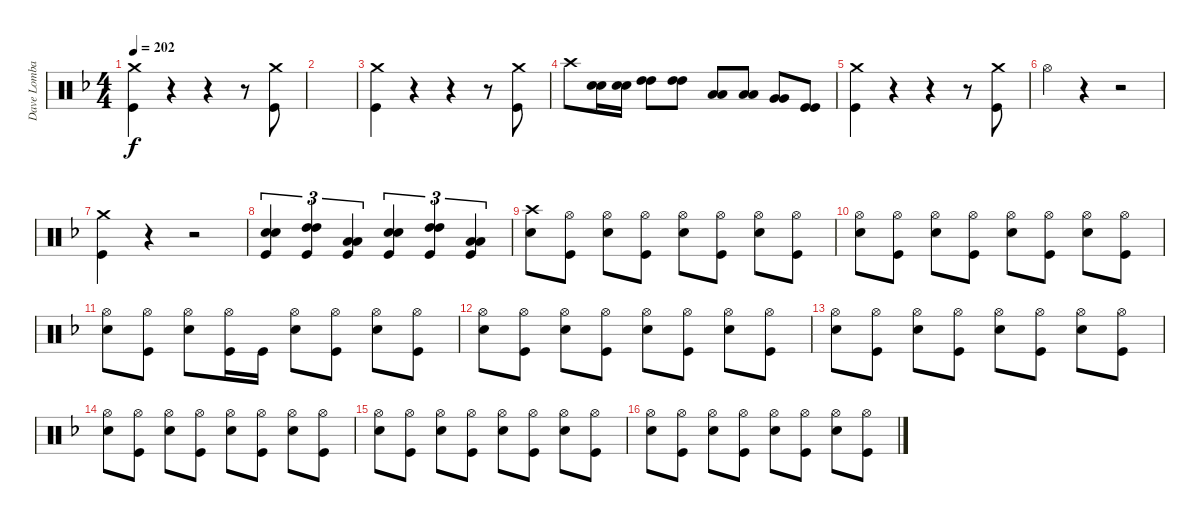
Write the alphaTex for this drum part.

\track ("Dave Lombardo - Drums" "Dave Lomba") {instrument percussion}
\staff {score}
\articulation defaults
\ts (4 4)
\tempo 202
\clef neutral
\ks f
("Crash medium (hit)" "Kick (hit)").4{dy f} r.4 r.4 r.8 ("Crash medium (hit)" "Kick (hit)").8 |
|
("Crash medium (hit)" "Kick (hit)").4 r.4 r.4 r.8 ("Crash medium (hit)" "Kick (hit)").8 |
"Crash high (hit)".8 ("Snare (hit) 2" "Snare (hit) 2").16 ("Snare (hit) 2" "Snare (hit) 2").16 ("High Tom (hit)" "High Tom (hit)").8 ("High Tom (hit)" "High Tom (hit)").8 ("Low Tom (hit)" "Low Tom (hit)").8 ("Low Tom (hit)" "Low Tom (hit)").8 ("Very Low Tom (hit)" "Very Low Tom (hit)").8 ("Kick (hit)" "Kick (hit)").8 |
("Crash medium (hit)" "Kick (hit)").4 r.4 r.4 r.8 ("Crash medium (hit)" "Kick (hit)").8 |
"Hi-Hat (open)".4 r.4 r.2 |
("Crash medium (hit)" "Kick (hit)").4 r.4 r.2 |
("Snare (hit) 2" "Snare (hit) 2" "Kick (hit)").4{tu (3 2)} ("High Tom (hit)" "High Tom (hit)" "Kick (hit)").4{tu (3 2)} ("Low Tom (hit)" "Low Tom (hit)" "Kick (hit)").4{tu (3 2)} ("Snare (hit) 2" "Snare (hit) 2" "Kick (hit)").4{tu (3 2)} ("High Tom (hit)" "High Tom (hit)" "Kick (hit)").4{tu (3 2)} ("Low Tom (hit)" "Low Tom (hit)" "Kick (hit)").4{tu (3 2)} |
("Crash high (hit)" "Snare (hit) 2").8 ("Hi-Hat (open)" "Kick (hit)").8 ("Hi-Hat (open)" "Snare (hit) 2").8 ("Hi-Hat (open)" "Kick (hit)").8 ("Hi-Hat (open)" "Snare (hit) 2").8 ("Hi-Hat (open)" "Kick (hit)").8 ("Hi-Hat (open)" "Snare (hit) 2").8 ("Hi-Hat (open)" "Kick (hit)").8 |
("Hi-Hat (open)" "Snare (hit) 2").8 ("Hi-Hat (open)" "Kick (hit)").8 ("Hi-Hat (open)" "Snare (hit) 2").8 ("Hi-Hat (open)" "Kick (hit)").8 ("Hi-Hat (open)" "Snare (hit) 2").8 ("Hi-Hat (open)" "Kick (hit)").8 ("Hi-Hat (open)" "Snare (hit) 2").8 ("Hi-Hat (open)" "Kick (hit)").8 |
("Hi-Hat (open)" "Snare (hit) 2").8 ("Hi-Hat (open)" "Kick (hit)").8 ("Hi-Hat (open)" "Snare (hit) 2").8 ("Hi-Hat (open)" "Kick (hit)").16 "Kick (hit)".16 ("Hi-Hat (open)" "Snare (hit) 2").8 ("Hi-Hat (open)" "Kick (hit)").8 ("Hi-Hat (open)" "Snare (hit) 2").8 ("Hi-Hat (open)" "Kick (hit)").8 |
("Hi-Hat (open)" "Snare (hit) 2").8 ("Hi-Hat (open)" "Kick (hit)").8 ("Hi-Hat (open)" "Snare (hit) 2").8 ("Hi-Hat (open)" "Kick (hit)").8 ("Hi-Hat (open)" "Snare (hit) 2").8 ("Hi-Hat (open)" "Kick (hit)").8 ("Hi-Hat (open)" "Snare (hit) 2").8 ("Hi-Hat (open)" "Kick (hit)").8 |
("Hi-Hat (open)" "Snare (hit) 2").8 ("Hi-Hat (open)" "Kick (hit)").8 ("Hi-Hat (open)" "Snare (hit) 2").8 ("Hi-Hat (open)" "Kick (hit)").8 ("Hi-Hat (open)" "Snare (hit) 2").8 ("Hi-Hat (open)" "Kick (hit)").8 ("Hi-Hat (open)" "Snare (hit) 2").8 ("Hi-Hat (open)" "Kick (hit)").8 |
("Hi-Hat (open)" "Snare (hit) 2").8 ("Hi-Hat (open)" "Kick (hit)").8 ("Hi-Hat (open)" "Snare (hit) 2").8 ("Hi-Hat (open)" "Kick (hit)").8 ("Hi-Hat (open)" "Snare (hit) 2").8 ("Hi-Hat (open)" "Kick (hit)").8 ("Hi-Hat (open)" "Snare (hit) 2").8 ("Hi-Hat (open)" "Kick (hit)").8 |
("Hi-Hat (open)" "Snare (hit) 2").8 ("Hi-Hat (open)" "Kick (hit)").8 ("Hi-Hat (open)" "Snare (hit) 2").8 ("Hi-Hat (open)" "Kick (hit)").8 ("Hi-Hat (open)" "Snare (hit) 2").8 ("Hi-Hat (open)" "Kick (hit)").8 ("Hi-Hat (open)" "Snare (hit) 2").8 ("Hi-Hat (open)" "Kick (hit)").8 |
("Hi-Hat (open)" "Snare (hit) 2").8 ("Hi-Hat (open)" "Kick (hit)").8 ("Hi-Hat (open)" "Snare (hit) 2").8 ("Hi-Hat (open)" "Kick (hit)").8 ("Hi-Hat (open)" "Snare (hit) 2").8 ("Hi-Hat (open)" "Kick (hit)").8 ("Hi-Hat (open)" "Snare (hit) 2").8 ("Hi-Hat (open)" "Kick (hit)").8
